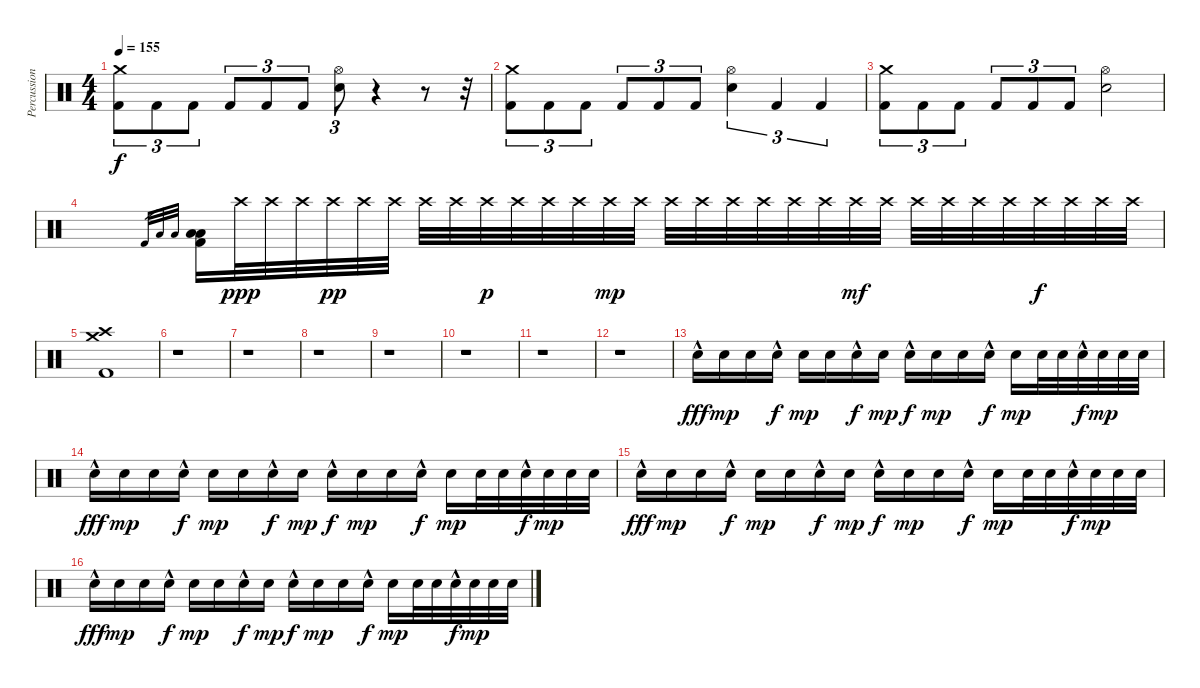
\track ("Percussion" "Percussion") {instrument percussion}
\staff {score}
\articulation defaults
\ts (4 4)
\tempo 155
\clef neutral
\ks c
("Crash medium (hit)" "Kick (hit) 2").8{tu (3 2) dy f} "Kick (hit) 2".8{tu (3 2)} "Kick (hit) 2".8{tu (3 2)} "Kick (hit) 2".8{tu (3 2)} "Kick (hit) 2".8{tu (3 2)} "Kick (hit) 2".8{tu (3 2)} ("Hi-Hat (open)" "Snare (hit) 2").8{tu (3 2)} r.4 r.8 r.32 |
("Crash medium (hit)" "Kick (hit) 2").8{tu (3 2)} "Kick (hit) 2".8{tu (3 2)} "Kick (hit) 2".8{tu (3 2)} "Kick (hit) 2".8{tu (3 2)} "Kick (hit) 2".8{tu (3 2)} "Kick (hit) 2".8{tu (3 2)} ("Hi-Hat (open)" "Snare (hit) 2").4{tu (3 2)} "Kick (hit) 2".4{tu (3 2)} "Kick (hit) 2".4{tu (3 2)} |
("Crash medium (hit)" "Kick (hit) 2").8{tu (3 2)} "Kick (hit) 2".8{tu (3 2)} "Kick (hit) 2".8{tu (3 2)} "Kick (hit) 2".8{tu (3 2)} "Kick (hit) 2".8{tu (3 2)} "Kick (hit) 2".8{tu (3 2)} ("Hi-Hat (open)" "Snare (hit) 2").2 |
"Kick (hit) 2".32{gr} "Low Floor Tom (hit)".32{gr} "Low Tom (hit)".32{gr} ("Kick (hit) 2" "Low Floor Tom (hit)" "Low Tom (hit)").16 "Crash high (hit)".32{dy ppp} "Crash high (hit)".32 "Crash high (hit)".32 "Crash high (hit)".32{dy pp} "Crash high (hit)".32 "Crash high (hit)".32 "Crash high (hit)".32 "Crash high (hit)".32 "Crash high (hit)".32{dy p} "Crash high (hit)".32 "Crash high (hit)".32 "Crash high (hit)".32 "Crash high (hit)".32{dy mp} "Crash high (hit)".32 "Crash high (hit)".32 "Crash high (hit)".32 "Crash high (hit)".32 "Crash high (hit)".32 "Crash high (hit)".32 "Crash high (hit)".32 "Crash high (hit)".32{dy mf} "Crash high (hit)".32 "Crash high (hit)".32 "Crash high (hit)".32 "Crash high (hit)".32 "Crash high (hit)".32 "Crash high (hit)".32{dy f} "Crash high (hit)".32 "Crash high (hit)".32 "Crash high (hit)".32 |
("Crash medium (hit)" "Crash high (hit)" "Kick (hit) 2").1 |
r.1 |
r.1 |
r.1 |
r.1 |
r.1 |
r.1 |
r.1 |
"Snare (hit) 2"{hac}.16{dy fff} "Snare (hit) 2".16{dy mp} "Snare (hit) 2".16 "Snare (hit) 2"{hac}.16{dy f} "Snare (hit) 2".16{dy mp} "Snare (hit) 2".16 "Snare (hit) 2"{hac}.16{dy f} "Snare (hit) 2".16{dy mp} "Snare (hit) 2"{hac}.16{dy f} "Snare (hit) 2".16{dy mp} "Snare (hit) 2".16 "Snare (hit) 2"{hac}.16{dy f} "Snare (hit) 2".16{dy mp} "Snare (hit) 2".32 "Snare (hit) 2".32 "Snare (hit) 2"{hac}.32{dy f} "Snare (hit) 2".32{dy mp} "Snare (hit) 2".32 "Snare (hit) 2".32 |
"Snare (hit) 2"{hac}.16{dy fff} "Snare (hit) 2".16{dy mp} "Snare (hit) 2".16 "Snare (hit) 2"{hac}.16{dy f} "Snare (hit) 2".16{dy mp} "Snare (hit) 2".16 "Snare (hit) 2"{hac}.16{dy f} "Snare (hit) 2".16{dy mp} "Snare (hit) 2"{hac}.16{dy f} "Snare (hit) 2".16{dy mp} "Snare (hit) 2".16 "Snare (hit) 2"{hac}.16{dy f} "Snare (hit) 2".16{dy mp} "Snare (hit) 2".32 "Snare (hit) 2".32 "Snare (hit) 2"{hac}.32{dy f} "Snare (hit) 2".32{dy mp} "Snare (hit) 2".32 "Snare (hit) 2".32 |
"Snare (hit) 2"{hac}.16{dy fff} "Snare (hit) 2".16{dy mp} "Snare (hit) 2".16 "Snare (hit) 2"{hac}.16{dy f} "Snare (hit) 2".16{dy mp} "Snare (hit) 2".16 "Snare (hit) 2"{hac}.16{dy f} "Snare (hit) 2".16{dy mp} "Snare (hit) 2"{hac}.16{dy f} "Snare (hit) 2".16{dy mp} "Snare (hit) 2".16 "Snare (hit) 2"{hac}.16{dy f} "Snare (hit) 2".16{dy mp} "Snare (hit) 2".32 "Snare (hit) 2".32 "Snare (hit) 2"{hac}.32{dy f} "Snare (hit) 2".32{dy mp} "Snare (hit) 2".32 "Snare (hit) 2".32 |
"Snare (hit) 2"{hac}.16{dy fff} "Snare (hit) 2".16{dy mp} "Snare (hit) 2".16 "Snare (hit) 2"{hac}.16{dy f} "Snare (hit) 2".16{dy mp} "Snare (hit) 2".16 "Snare (hit) 2"{hac}.16{dy f} "Snare (hit) 2".16{dy mp} "Snare (hit) 2"{hac}.16{dy f} "Snare (hit) 2".16{dy mp} "Snare (hit) 2".16 "Snare (hit) 2"{hac}.16{dy f} "Snare (hit) 2".16{dy mp} "Snare (hit) 2".32 "Snare (hit) 2".32 "Snare (hit) 2"{hac}.32{dy f} "Snare (hit) 2".32{dy mp} "Snare (hit) 2".32 "Snare (hit) 2".32
